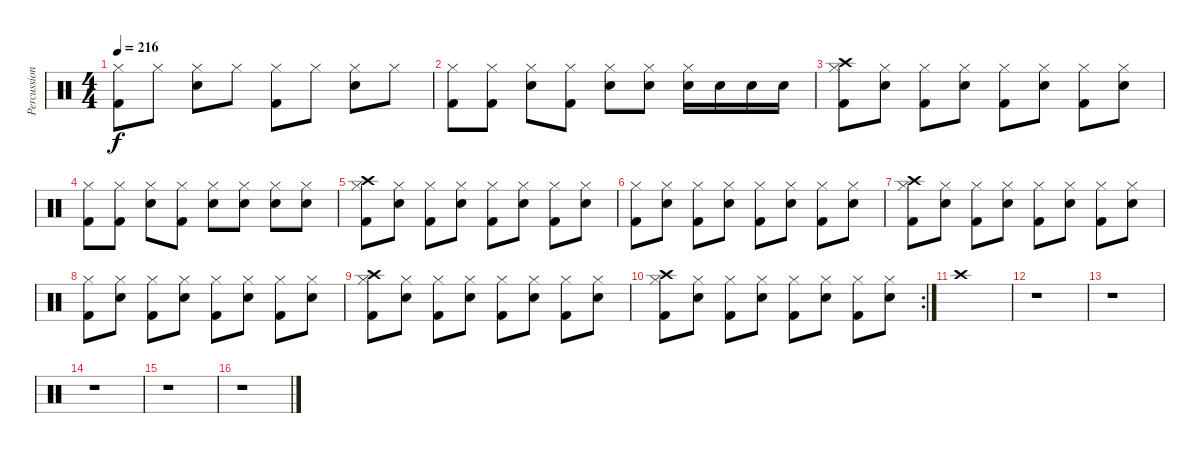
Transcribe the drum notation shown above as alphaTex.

\track ("Percussion" "Percussion") {instrument percussion}
\staff {score}
\articulation defaults
\ts (4 4)
\tempo 216
\clef neutral
\ks c
("Hi-Hat (closed)" "Kick (hit) 2").8{dy f} "Hi-Hat (closed)".8 ("Hi-Hat (closed)" "Snare (hit) 2").8 "Hi-Hat (closed)".8 ("Hi-Hat (closed)" "Kick (hit) 2").8 "Hi-Hat (closed)".8 ("Hi-Hat (closed)" "Snare (hit) 2").8 "Hi-Hat (closed)".8 |
("Hi-Hat (closed)" "Kick (hit) 2").8 ("Hi-Hat (closed)" "Kick (hit) 2").8 ("Hi-Hat (closed)" "Snare (hit) 2").8 ("Hi-Hat (closed)" "Kick (hit) 2").8 ("Hi-Hat (closed)" "Snare (hit) 2").8 ("Hi-Hat (closed)" "Snare (hit) 2").8 ("Hi-Hat (closed)" "Snare (hit) 2").16 "Snare (hit) 2".16 "Snare (hit) 2".16 "Snare (hit) 2".16 |
("Crash high (hit)" "Hi-Hat (closed)" "Kick (hit) 2").8 ("Hi-Hat (closed)" "Snare (hit) 2").8 ("Hi-Hat (closed)" "Kick (hit) 2").8 ("Hi-Hat (closed)" "Snare (hit) 2").8 ("Hi-Hat (closed)" "Kick (hit) 2").8 ("Hi-Hat (closed)" "Snare (hit) 2").8 ("Hi-Hat (closed)" "Kick (hit) 2").8 ("Hi-Hat (closed)" "Snare (hit) 2").8 |
("Hi-Hat (closed)" "Kick (hit) 2").8 ("Hi-Hat (closed)" "Kick (hit) 2").8 ("Hi-Hat (closed)" "Snare (hit) 2").8 ("Hi-Hat (closed)" "Kick (hit) 2").8 ("Hi-Hat (closed)" "Snare (hit) 2").8 ("Hi-Hat (closed)" "Snare (hit) 2").8 ("Hi-Hat (closed)" "Snare (hit) 2").8 ("Hi-Hat (closed)" "Snare (hit) 2").8 |
("Crash high (hit)" "Hi-Hat (closed)" "Kick (hit) 2").8 ("Hi-Hat (closed)" "Snare (hit) 2").8 ("Hi-Hat (closed)" "Kick (hit) 2").8 ("Hi-Hat (closed)" "Snare (hit) 2").8 ("Hi-Hat (closed)" "Kick (hit) 2").8 ("Hi-Hat (closed)" "Snare (hit) 2").8 ("Hi-Hat (closed)" "Kick (hit) 2").8 ("Hi-Hat (closed)" "Snare (hit) 2").8 |
("Hi-Hat (closed)" "Kick (hit) 2").8 ("Hi-Hat (closed)" "Snare (hit) 2").8 ("Hi-Hat (closed)" "Kick (hit) 2").8 ("Hi-Hat (closed)" "Snare (hit) 2").8 ("Hi-Hat (closed)" "Kick (hit) 2").8 ("Hi-Hat (closed)" "Snare (hit) 2").8 ("Hi-Hat (closed)" "Kick (hit) 2").8 ("Hi-Hat (closed)" "Snare (hit) 2").8 |
("Crash high (hit)" "Hi-Hat (closed)" "Kick (hit) 2").8 ("Hi-Hat (closed)" "Snare (hit) 2").8 ("Hi-Hat (closed)" "Kick (hit) 2").8 ("Hi-Hat (closed)" "Snare (hit) 2").8 ("Hi-Hat (closed)" "Kick (hit) 2").8 ("Hi-Hat (closed)" "Snare (hit) 2").8 ("Hi-Hat (closed)" "Kick (hit) 2").8 ("Hi-Hat (closed)" "Snare (hit) 2").8 |
("Hi-Hat (closed)" "Kick (hit) 2").8 ("Hi-Hat (closed)" "Snare (hit) 2").8 ("Hi-Hat (closed)" "Kick (hit) 2").8 ("Hi-Hat (closed)" "Snare (hit) 2").8 ("Hi-Hat (closed)" "Kick (hit) 2").8 ("Hi-Hat (closed)" "Snare (hit) 2").8 ("Hi-Hat (closed)" "Kick (hit) 2").8 ("Hi-Hat (closed)" "Snare (hit) 2").8 |
("Crash high (hit)" "Hi-Hat (closed)" "Kick (hit) 2").8 ("Hi-Hat (closed)" "Snare (hit) 2").8 ("Hi-Hat (closed)" "Kick (hit) 2").8 ("Hi-Hat (closed)" "Snare (hit) 2").8 ("Hi-Hat (closed)" "Kick (hit) 2").8 ("Hi-Hat (closed)" "Snare (hit) 2").8 ("Hi-Hat (closed)" "Kick (hit) 2").8 ("Hi-Hat (closed)" "Snare (hit) 2").8 |
\rc 2
("Crash high (hit)" "Hi-Hat (closed)" "Kick (hit) 2").8 ("Hi-Hat (closed)" "Snare (hit) 2").8 ("Hi-Hat (closed)" "Kick (hit) 2").8 ("Hi-Hat (closed)" "Snare (hit) 2").8 ("Hi-Hat (closed)" "Kick (hit) 2").8 ("Hi-Hat (closed)" "Snare (hit) 2").8 ("Hi-Hat (closed)" "Kick (hit) 2").8 ("Hi-Hat (closed)" "Snare (hit) 2").8 |
"Crash high (hit)".1 |
r.1 |
r.1 |
r.1 |
r.1 |
r.1
